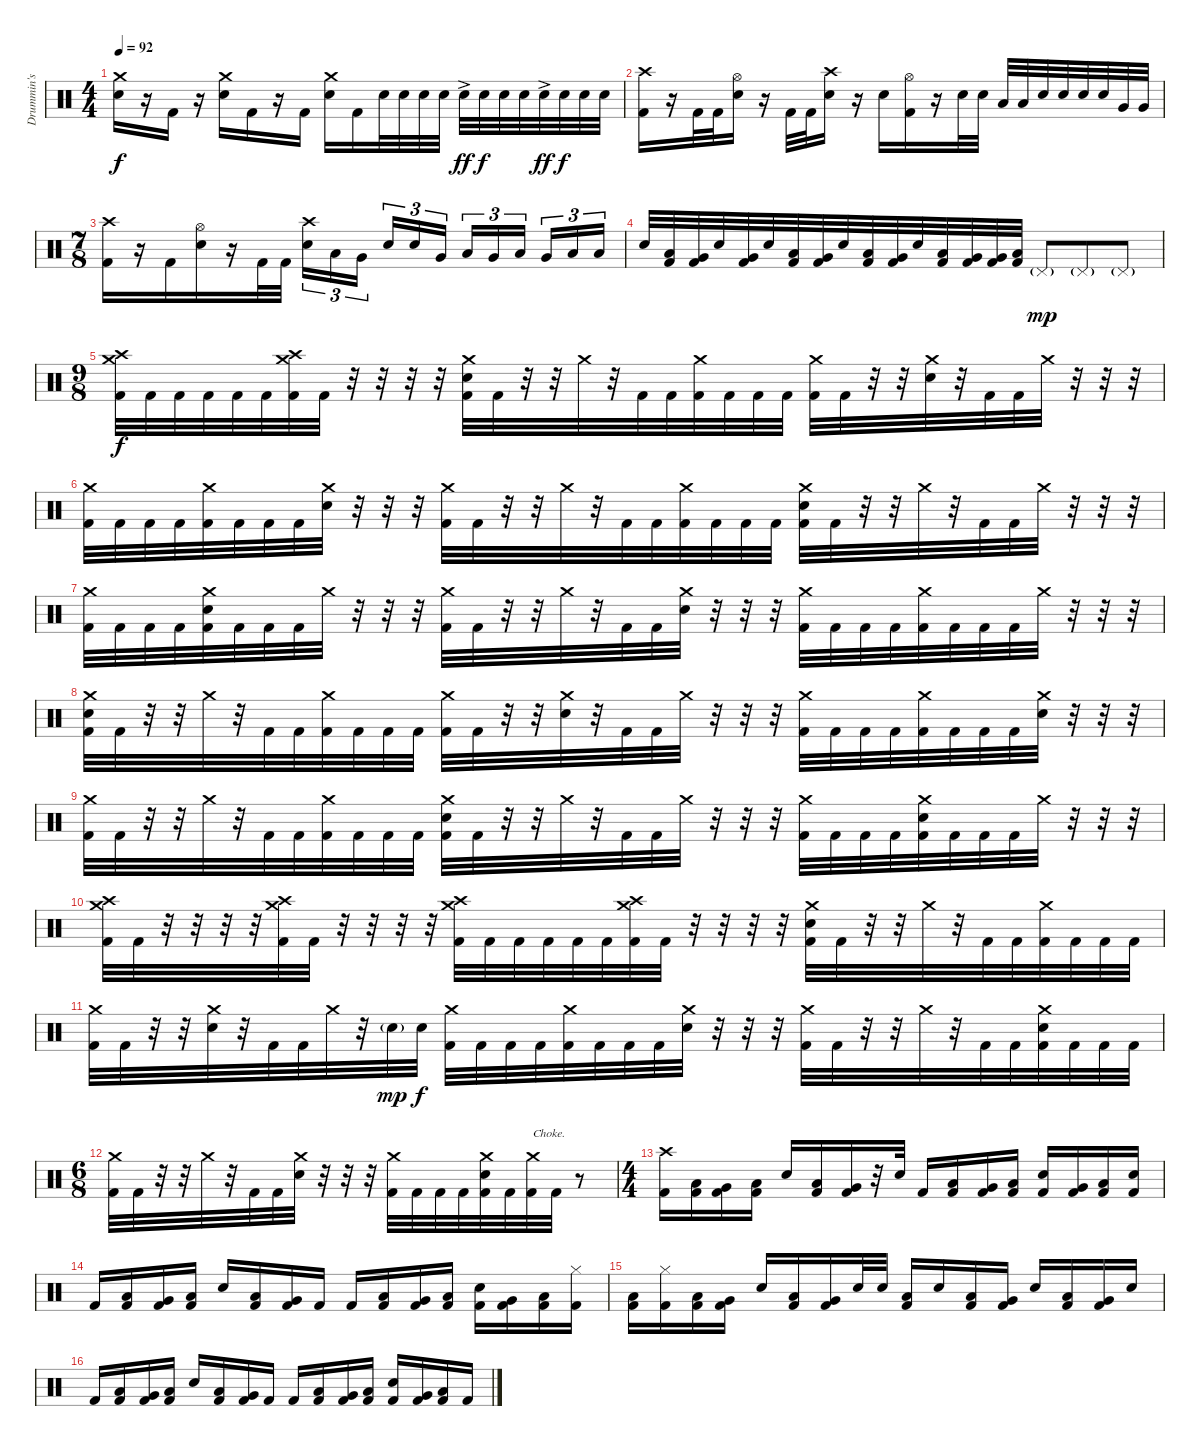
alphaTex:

\track ("Drummin's" "Drummin's") {instrument percussion}
\staff {score}
\articulation defaults
\ts (4 4)
\tempo 92
\clef neutral
\ks c
("Crash medium (hit)" "Snare (hit) 2").16{dy f} r.16 "Kick (hit) 2".16 r.16 ("Crash medium (hit)" "Snare (hit) 2").16 "Kick (hit) 2".16 r.16 "Kick (hit) 2".16 ("Crash medium (hit)" "Snare (hit) 2").16 "Kick (hit) 2".16 "Snare (hit) 2".32 "Snare (hit) 2".32 "Snare (hit) 2".32 "Snare (hit) 2".32 "Snare (hit) 2"{ac}.32{dy ff} "Snare (hit) 2".32{dy f} "Snare (hit) 2".32 "Snare (hit) 2".32 "Snare (hit) 2"{ac}.32{dy ff} "Snare (hit) 2".32{dy f} "Snare (hit) 2".32 "Snare (hit) 2".32 |
("Crash high (hit)" "Kick (hit) 2").16 r.16 "Kick (hit) 2".32 "Kick (hit) 2".32 ("Hi-Hat (open)" "Snare (hit) 2").16 r.16 "Kick (hit) 2".32 "Kick (hit) 2".32 ("Crash high (hit)" "Snare (hit) 2").16 r.16 "Snare (hit) 2".16 ("Hi-Hat (open)" "Kick (hit) 2").16 r.16 "Snare (hit) 2".32 "Snare (hit) 2".32 "Low Tom (hit)".32 "Low Tom (hit)".32 "Snare (hit) 2".32 "Snare (hit) 2".32 "Snare (hit) 2".32 "Snare (hit) 2".32 "Very Low Tom (hit)".32 "Very Low Tom (hit)".32 |
\ts (7 8)
("Crash high (hit)" "Kick (hit) 2").16 r.16 "Kick (hit) 2".16 ("Hi-Hat (open)" "Snare (hit) 2").16 r.16 "Kick (hit) 2".32 "Kick (hit) 2".32 ("Crash high (hit)" "Snare (hit) 2").16{tu (3 2)} "Low Tom (hit)".16{tu (3 2)} "Very Low Tom (hit)".16{tu (3 2)} "Snare (hit) 2".16{tu (3 2)} "Snare (hit) 2".16{tu (3 2)} "Very Low Tom (hit)".16{tu (3 2)} "Low Tom (hit)".16{tu (3 2)} "Very Low Tom (hit)".16{tu (3 2)} "Low Floor Tom (hit)".16{tu (3 2)} "Very Low Tom (hit)".16{tu (3 2)} "Low Floor Tom (hit)".16{tu (3 2)} "Low Floor Tom (hit)".16{tu (3 2)} |
"Snare (hit) 2".32 ("Low Tom (hit)" "Kick (hit) 2").32 ("Very Low Tom (hit)" "Kick (hit) 2").32 "Snare (hit) 2".32 ("Very Low Tom (hit)" "Kick (hit) 2").32 "Snare (hit) 2".32 ("Low Tom (hit)" "Kick (hit) 2").32 ("Very Low Tom (hit)" "Kick (hit) 2").32 "Snare (hit) 2".32 ("Low Tom (hit)" "Kick (hit) 2").32 ("Very Low Tom (hit)" "Kick (hit) 2").32 "Snare (hit) 2".32 ("Low Tom (hit)" "Kick (hit) 2").32 ("Very Low Tom (hit)" "Kick (hit) 2").32 ("Very Low Tom (hit)" "Kick (hit) 2").32 ("Low Floor Tom (hit)" "Kick (hit) 2").32 "Pedal Hi-Hat (hit)"{g}.8{dy mp} "Pedal Hi-Hat (hit)"{g}.8 "Pedal Hi-Hat (hit)"{g}.8 |
\ts (9 8)
("Crash medium (hit)" "Crash high (hit)" "Kick (hit) 2").32{dy f} "Kick (hit) 2".32 "Kick (hit) 2".32 "Kick (hit) 2".32 "Kick (hit) 2".32 "Kick (hit) 2".32 ("Crash medium (hit)" "Crash high (hit)" "Kick (hit) 2").32 "Kick (hit) 2".32 r.32 r.32 r.32 r.32 ("Crash medium (hit)" "Snare (hit) 2" "Kick (hit) 2").32 "Kick (hit) 2".32 r.32 r.32 "Crash medium (hit)".32 r.32 "Kick (hit) 2".32 "Kick (hit) 2".32 ("Crash medium (hit)" "Kick (hit) 2").32 "Kick (hit) 2".32 "Kick (hit) 2".32 "Kick (hit) 2".32 ("Crash medium (hit)" "Kick (hit) 2").32 "Kick (hit) 2".32 r.32 r.32 ("Crash medium (hit)" "Snare (hit) 2").32 r.32 "Kick (hit) 2".32 "Kick (hit) 2".32 "Crash medium (hit)".32 r.32 r.32 r.32 |
("Crash medium (hit)" "Kick (hit) 2").32 "Kick (hit) 2".32 "Kick (hit) 2".32 "Kick (hit) 2".32 ("Crash medium (hit)" "Kick (hit) 2").32 "Kick (hit) 2".32 "Kick (hit) 2".32 "Kick (hit) 2".32 ("Crash medium (hit)" "Snare (hit) 2").32 r.32 r.32 r.32 ("Crash medium (hit)" "Kick (hit) 2").32 "Kick (hit) 2".32 r.32 r.32 "Crash medium (hit)".32 r.32 "Kick (hit) 2".32 "Kick (hit) 2".32 ("Crash medium (hit)" "Kick (hit) 2").32 "Kick (hit) 2".32 "Kick (hit) 2".32 "Kick (hit) 2".32 ("Crash medium (hit)" "Snare (hit) 2" "Kick (hit) 2").32 "Kick (hit) 2".32 r.32 r.32 "Crash medium (hit)".32 r.32 "Kick (hit) 2".32 "Kick (hit) 2".32 "Crash medium (hit)".32 r.32 r.32 r.32 |
("Crash medium (hit)" "Kick (hit) 2").32 "Kick (hit) 2".32 "Kick (hit) 2".32 "Kick (hit) 2".32 ("Crash medium (hit)" "Snare (hit) 2" "Kick (hit) 2").32 "Kick (hit) 2".32 "Kick (hit) 2".32 "Kick (hit) 2".32 "Crash medium (hit)".32 r.32 r.32 r.32 ("Crash medium (hit)" "Kick (hit) 2").32 "Kick (hit) 2".32 r.32 r.32 "Crash medium (hit)".32 r.32 "Kick (hit) 2".32 "Kick (hit) 2".32 ("Crash medium (hit)" "Snare (hit) 2").32 r.32 r.32 r.32 ("Crash medium (hit)" "Kick (hit) 2").32 "Kick (hit) 2".32 "Kick (hit) 2".32 "Kick (hit) 2".32 ("Crash medium (hit)" "Kick (hit) 2").32 "Kick (hit) 2".32 "Kick (hit) 2".32 "Kick (hit) 2".32 "Crash medium (hit)".32 r.32 r.32 r.32 |
("Crash medium (hit)" "Snare (hit) 2" "Kick (hit) 2").32 "Kick (hit) 2".32 r.32 r.32 "Crash medium (hit)".32 r.32 "Kick (hit) 2".32 "Kick (hit) 2".32 ("Crash medium (hit)" "Kick (hit) 2").32 "Kick (hit) 2".32 "Kick (hit) 2".32 "Kick (hit) 2".32 ("Crash medium (hit)" "Kick (hit) 2").32 "Kick (hit) 2".32 r.32 r.32 ("Crash medium (hit)" "Snare (hit) 2").32 r.32 "Kick (hit) 2".32 "Kick (hit) 2".32 "Crash medium (hit)".32 r.32 r.32 r.32 ("Crash medium (hit)" "Kick (hit) 2").32 "Kick (hit) 2".32 "Kick (hit) 2".32 "Kick (hit) 2".32 ("Crash medium (hit)" "Kick (hit) 2").32 "Kick (hit) 2".32 "Kick (hit) 2".32 "Kick (hit) 2".32 ("Crash medium (hit)" "Snare (hit) 2").32 r.32 r.32 r.32 |
("Crash medium (hit)" "Kick (hit) 2").32 "Kick (hit) 2".32 r.32 r.32 "Crash medium (hit)".32 r.32 "Kick (hit) 2".32 "Kick (hit) 2".32 ("Crash medium (hit)" "Kick (hit) 2").32 "Kick (hit) 2".32 "Kick (hit) 2".32 "Kick (hit) 2".32 ("Crash medium (hit)" "Snare (hit) 2" "Kick (hit) 2").32 "Kick (hit) 2".32 r.32 r.32 "Crash medium (hit)".32 r.32 "Kick (hit) 2".32 "Kick (hit) 2".32 "Crash medium (hit)".32 r.32 r.32 r.32 ("Crash medium (hit)" "Kick (hit) 2").32 "Kick (hit) 2".32 "Kick (hit) 2".32 "Kick (hit) 2".32 ("Crash medium (hit)" "Snare (hit) 2" "Kick (hit) 2").32 "Kick (hit) 2".32 "Kick (hit) 2".32 "Kick (hit) 2".32 "Crash medium (hit)".32 r.32 r.32 r.32 |
("Crash medium (hit)" "Crash high (hit)" "Kick (hit) 2").32 "Kick (hit) 2".32 r.32 r.32 r.32 r.32 ("Crash medium (hit)" "Crash high (hit)" "Kick (hit) 2").32 "Kick (hit) 2".32 r.32 r.32 r.32 r.32 ("Crash medium (hit)" "Crash high (hit)" "Kick (hit) 2").32 "Kick (hit) 2".32 "Kick (hit) 2".32 "Kick (hit) 2".32 "Kick (hit) 2".32 "Kick (hit) 2".32 ("Crash medium (hit)" "Crash high (hit)" "Kick (hit) 2").32 "Kick (hit) 2".32 r.32 r.32 r.32 r.32 ("Crash medium (hit)" "Snare (hit) 2" "Kick (hit) 2").32 "Kick (hit) 2".32 r.32 r.32 "Crash medium (hit)".32 r.32 "Kick (hit) 2".32 "Kick (hit) 2".32 ("Crash medium (hit)" "Kick (hit) 2").32 "Kick (hit) 2".32 "Kick (hit) 2".32 "Kick (hit) 2".32 |
("Crash medium (hit)" "Kick (hit) 2").32 "Kick (hit) 2".32 r.32 r.32 ("Crash medium (hit)" "Snare (hit) 2").32 r.32 "Kick (hit) 2".32 "Kick (hit) 2".32 "Crash medium (hit)".32 r.32 "Snare (hit) 2"{g}.32{dy mp} "Snare (hit) 2".32{dy f} ("Crash medium (hit)" "Kick (hit) 2").32 "Kick (hit) 2".32 "Kick (hit) 2".32 "Kick (hit) 2".32 ("Crash medium (hit)" "Kick (hit) 2").32 "Kick (hit) 2".32 "Kick (hit) 2".32 "Kick (hit) 2".32 ("Crash medium (hit)" "Snare (hit) 2").32 r.32 r.32 r.32 ("Crash medium (hit)" "Kick (hit) 2").32 "Kick (hit) 2".32 r.32 r.32 "Crash medium (hit)".32 r.32 "Kick (hit) 2".32 "Kick (hit) 2".32 ("Crash medium (hit)" "Snare (hit) 2" "Kick (hit) 2").32 "Kick (hit) 2".32 "Kick (hit) 2".32 "Kick (hit) 2".32 |
\ts (6 8)
("Crash medium (hit)" "Kick (hit) 2").32 "Kick (hit) 2".32 r.32 r.32 "Crash medium (hit)".32 r.32 "Kick (hit) 2".32 "Kick (hit) 2".32 ("Crash medium (hit)" "Snare (hit) 2").32 r.32 r.32 r.32 ("Crash medium (hit)" "Kick (hit) 2").32 "Kick (hit) 2".32 "Kick (hit) 2".32 "Kick (hit) 2".32 ("Crash medium (hit)" "Snare (hit) 2" "Kick (hit) 2").32 "Kick (hit) 2".32 ("Crash medium (hit)" "Kick (hit) 2").32{txt "Choke."} "Kick (hit) 2".32 r.8{volume 0} |
\ts (4 4)
("Crash high (hit)" "Kick (hit) 2").16{volume 13} ("Low Tom (hit)" "Kick (hit) 2").16 ("Very Low Tom (hit)" "Kick (hit) 2").16 ("Low Floor Tom (hit)" "Kick (hit) 2").16 "Snare (hit) 2".16 ("Low Tom (hit)" "Kick (hit) 2").16 ("Very Low Tom (hit)" "Kick (hit) 2").16 r.32 "Snare (hit) 2".32 "Kick (hit) 2".16 ("Low Tom (hit)" "Kick (hit) 2").16 ("Very Low Tom (hit)" "Kick (hit) 2").16 ("Low Floor Tom (hit)" "Kick (hit) 2").16 ("Snare (hit) 2" "Kick (hit) 2").16 ("Very Low Tom (hit)" "Kick (hit) 2").16 ("Low Floor Tom (hit)" "Kick (hit) 2").16 ("Snare (hit) 2" "Kick (hit) 2").16 |
"Kick (hit) 2".16 ("Low Tom (hit)" "Kick (hit) 2").16 ("Very Low Tom (hit)" "Kick (hit) 2").16 ("Low Floor Tom (hit)" "Kick (hit) 2").16 "Snare (hit) 2".16 ("Low Tom (hit)" "Kick (hit) 2").16 ("Very Low Tom (hit)" "Kick (hit) 2").16 "Kick (hit) 2".16 "Kick (hit) 2".16 ("Low Tom (hit)" "Kick (hit) 2").16 ("Very Low Tom (hit)" "Kick (hit) 2").16 ("Low Floor Tom (hit)" "Kick (hit) 2").16 ("Snare (hit) 2" "Kick (hit) 2").16 ("Very Low Tom (hit)" "Kick (hit) 2").16 ("Low Floor Tom (hit)" "Kick (hit) 2").16 ("Hi-Hat (closed)" "Kick (hit) 2").16 |
("Low Tom (hit)" "Kick (hit) 2").16 ("Hi-Hat (closed)" "Kick (hit) 2").16 ("Low Tom (hit)" "Kick (hit) 2").16 ("Very Low Tom (hit)" "Kick (hit) 2").16 "Snare (hit) 2".16 ("Low Tom (hit)" "Kick (hit) 2").16 ("Very Low Tom (hit)" "Kick (hit) 2").16 "Snare (hit) 2".32 "Snare (hit) 2".32 ("Low Floor Tom (hit)" "Kick (hit) 2").16 "Snare (hit) 2".16 ("Low Tom (hit)" "Kick (hit) 2").16 ("Very Low Tom (hit)" "Kick (hit) 2").16 "Snare (hit) 2".16 ("Low Tom (hit)" "Kick (hit) 2").16 ("Very Low Tom (hit)" "Kick (hit) 2").16 "Snare (hit) 2".16 |
"Kick (hit) 2".16 ("Low Tom (hit)" "Kick (hit) 2").16 ("Very Low Tom (hit)" "Kick (hit) 2").16 ("Low Floor Tom (hit)" "Kick (hit) 2").16 "Snare (hit) 2".16 ("Low Tom (hit)" "Kick (hit) 2").16 ("Very Low Tom (hit)" "Kick (hit) 2").16 "Kick (hit) 2".16 "Kick (hit) 2".16 ("Low Tom (hit)" "Kick (hit) 2").16 ("Very Low Tom (hit)" "Kick (hit) 2").16 ("Low Floor Tom (hit)" "Kick (hit) 2").16 ("Snare (hit) 2" "Kick (hit) 2").16 ("Very Low Tom (hit)" "Kick (hit) 2").16 ("Low Floor Tom (hit)" "Kick (hit) 2").16 "Kick (hit) 2".16
